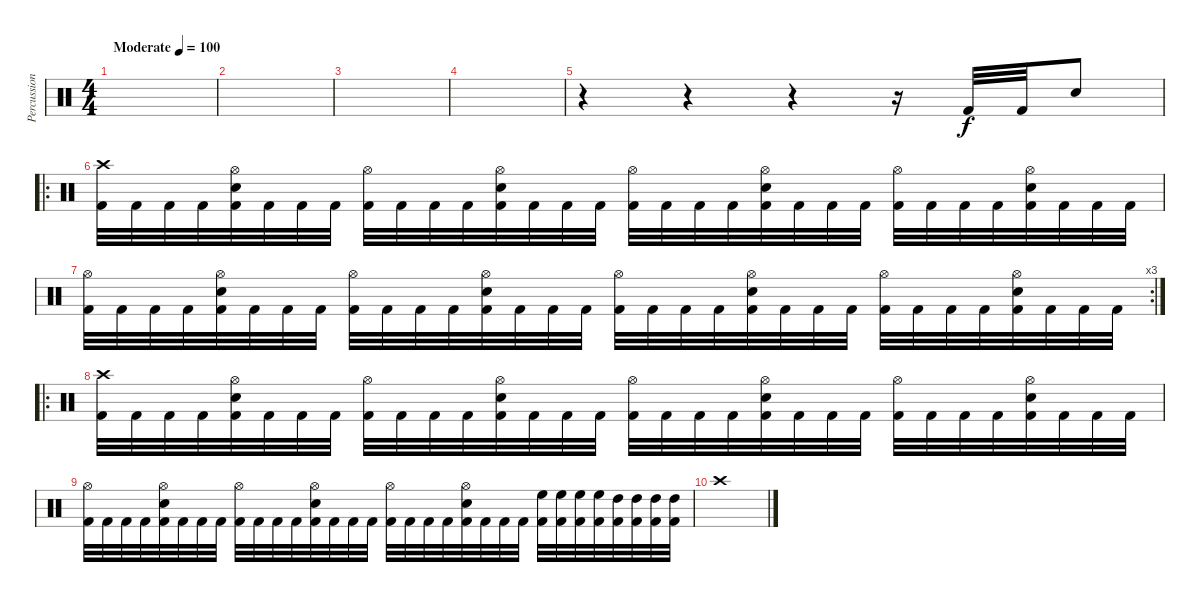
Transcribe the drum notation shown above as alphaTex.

\track ("Percussion" "Percussion") {instrument percussion}
\staff {score}
\articulation defaults
\ts (4 4)
\tempo (100 "Moderate")
\clef neutral
\ks c
|
|
|
|
r.4 r.4 r.4 r.16 "Kick (hit) 2".32 "Kick (hit) 2".32 "Snare (hit) 2".8 |
\ro
("Crash high (hit)" "Kick (hit) 2").32 "Kick (hit) 2".32 "Kick (hit) 2".32 "Kick (hit) 2".32 ("Hi-Hat (open)" "Snare (hit) 2" "Kick (hit) 2").32 "Kick (hit) 2".32 "Kick (hit) 2".32 "Kick (hit) 2".32 ("Hi-Hat (open)" "Kick (hit) 2").32 "Kick (hit) 2".32 "Kick (hit) 2".32 "Kick (hit) 2".32 ("Hi-Hat (open)" "Snare (hit) 2" "Kick (hit) 2").32 "Kick (hit) 2".32 "Kick (hit) 2".32 "Kick (hit) 2".32 ("Hi-Hat (open)" "Kick (hit) 2").32 "Kick (hit) 2".32 "Kick (hit) 2".32 "Kick (hit) 2".32 ("Hi-Hat (open)" "Snare (hit) 2" "Kick (hit) 2").32 "Kick (hit) 2".32 "Kick (hit) 2".32 "Kick (hit) 2".32 ("Hi-Hat (open)" "Kick (hit) 2").32 "Kick (hit) 2".32 "Kick (hit) 2".32 "Kick (hit) 2".32 ("Hi-Hat (open)" "Snare (hit) 2" "Kick (hit) 2").32 "Kick (hit) 2".32 "Kick (hit) 2".32 "Kick (hit) 2".32 |
\rc 3
("Hi-Hat (open)" "Kick (hit) 2").32 "Kick (hit) 2".32 "Kick (hit) 2".32 "Kick (hit) 2".32 ("Hi-Hat (open)" "Snare (hit) 2" "Kick (hit) 2").32 "Kick (hit) 2".32 "Kick (hit) 2".32 "Kick (hit) 2".32 ("Hi-Hat (open)" "Kick (hit) 2").32 "Kick (hit) 2".32 "Kick (hit) 2".32 "Kick (hit) 2".32 ("Hi-Hat (open)" "Snare (hit) 2" "Kick (hit) 2").32 "Kick (hit) 2".32 "Kick (hit) 2".32 "Kick (hit) 2".32 ("Hi-Hat (open)" "Kick (hit) 2").32 "Kick (hit) 2".32 "Kick (hit) 2".32 "Kick (hit) 2".32 ("Hi-Hat (open)" "Snare (hit) 2" "Kick (hit) 2").32 "Kick (hit) 2".32 "Kick (hit) 2".32 "Kick (hit) 2".32 ("Hi-Hat (open)" "Kick (hit) 2").32 "Kick (hit) 2".32 "Kick (hit) 2".32 "Kick (hit) 2".32 ("Hi-Hat (open)" "Snare (hit) 2" "Kick (hit) 2").32 "Kick (hit) 2".32 "Kick (hit) 2".32 "Kick (hit) 2".32 |
\ro
("Crash high (hit)" "Kick (hit) 2").32 "Kick (hit) 2".32 "Kick (hit) 2".32 "Kick (hit) 2".32 ("Hi-Hat (open)" "Snare (hit) 2" "Kick (hit) 2").32 "Kick (hit) 2".32 "Kick (hit) 2".32 "Kick (hit) 2".32 ("Hi-Hat (open)" "Kick (hit) 2").32 "Kick (hit) 2".32 "Kick (hit) 2".32 "Kick (hit) 2".32 ("Hi-Hat (open)" "Snare (hit) 2" "Kick (hit) 2").32 "Kick (hit) 2".32 "Kick (hit) 2".32 "Kick (hit) 2".32 ("Hi-Hat (open)" "Kick (hit) 2").32 "Kick (hit) 2".32 "Kick (hit) 2".32 "Kick (hit) 2".32 ("Hi-Hat (open)" "Snare (hit) 2" "Kick (hit) 2").32 "Kick (hit) 2".32 "Kick (hit) 2".32 "Kick (hit) 2".32 ("Hi-Hat (open)" "Kick (hit) 2").32 "Kick (hit) 2".32 "Kick (hit) 2".32 "Kick (hit) 2".32 ("Hi-Hat (open)" "Snare (hit) 2" "Kick (hit) 2").32 "Kick (hit) 2".32 "Kick (hit) 2".32 "Kick (hit) 2".32 |
("Hi-Hat (open)" "Kick (hit) 2").32 "Kick (hit) 2".32 "Kick (hit) 2".32 "Kick (hit) 2".32 ("Hi-Hat (open)" "Snare (hit) 2" "Kick (hit) 2").32 "Kick (hit) 2".32 "Kick (hit) 2".32 "Kick (hit) 2".32 ("Hi-Hat (open)" "Kick (hit) 2").32 "Kick (hit) 2".32 "Kick (hit) 2".32 "Kick (hit) 2".32 ("Hi-Hat (open)" "Snare (hit) 2" "Kick (hit) 2").32 "Kick (hit) 2".32 "Kick (hit) 2".32 "Kick (hit) 2".32 ("Hi-Hat (open)" "Kick (hit) 2").32 "Kick (hit) 2".32 "Kick (hit) 2".32 "Kick (hit) 2".32 ("Hi-Hat (open)" "Snare (hit) 2" "Kick (hit) 2").32 "Kick (hit) 2".32 "Kick (hit) 2".32 "Kick (hit) 2".32 ("High Floor Tom (hit)" "Kick (hit) 2").32 ("High Floor Tom (hit)" "Kick (hit) 2").32 ("High Floor Tom (hit)" "Kick (hit) 2").32 ("High Floor Tom (hit)" "Kick (hit) 2").32 ("High Tom (hit)" "Kick (hit) 2").32 ("High Tom (hit)" "Kick (hit) 2").32 ("High Tom (hit)" "Kick (hit) 2").32 ("High Tom (hit)" "Kick (hit) 2").32 |
"Crash high (hit)".1
